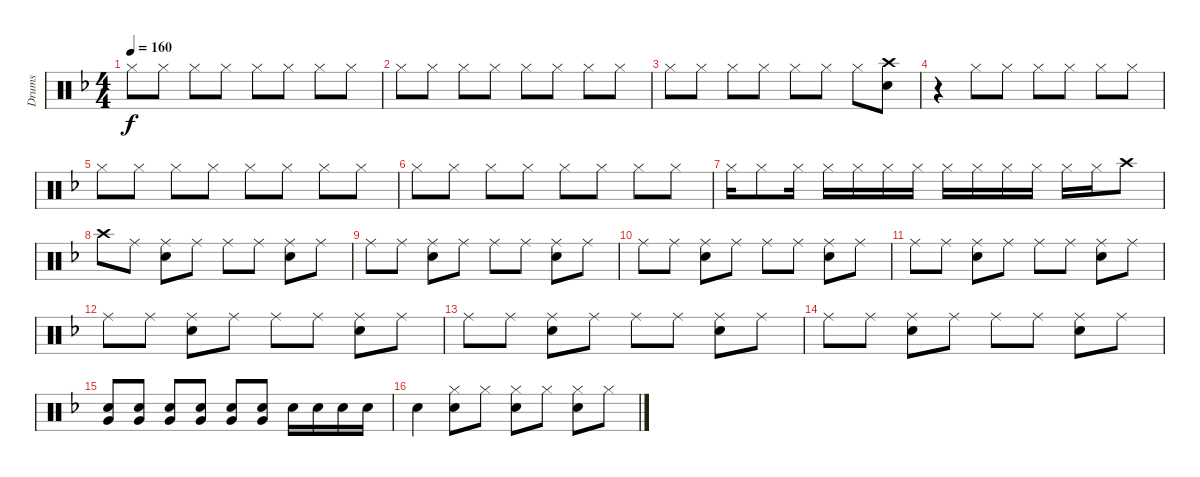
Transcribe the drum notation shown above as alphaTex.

\track ("Drums" "Drums") {instrument percussion}
\staff {score}
\articulation defaults
\ts (4 4)
\tempo 160
\clef neutral
\ks f "Hi-Hat (closed)".8{dy f} "Hi-Hat (closed)".8 "Hi-Hat (closed)".8 "Hi-Hat (closed)".8 "Hi-Hat (closed)".8 "Hi-Hat (closed)".8 "Hi-Hat (closed)".8 "Hi-Hat (closed)".8
|
"Hi-Hat (closed)".8 "Hi-Hat (closed)".8 "Hi-Hat (closed)".8 "Hi-Hat (closed)".8 "Hi-Hat (closed)".8 "Hi-Hat (closed)".8 "Hi-Hat (closed)".8 "Hi-Hat (closed)".8 |
"Hi-Hat (closed)".8 "Hi-Hat (closed)".8 "Hi-Hat (closed)".8 "Hi-Hat (closed)".8 "Hi-Hat (closed)".8 "Hi-Hat (closed)".8 "Hi-Hat (closed)".8 ("Crash high (hit)" "Snare (hit) 2").8 |
r.4 "Hi-Hat (closed)".8 "Hi-Hat (closed)".8 "Hi-Hat (closed)".8 "Hi-Hat (closed)".8 "Hi-Hat (closed)".8 "Hi-Hat (closed)".8 |
"Hi-Hat (closed)".8 "Hi-Hat (closed)".8 "Hi-Hat (closed)".8 "Hi-Hat (closed)".8 "Hi-Hat (closed)".8 "Hi-Hat (closed)".8 "Hi-Hat (closed)".8 "Hi-Hat (closed)".8 |
"Hi-Hat (closed)".8 "Hi-Hat (closed)".8 "Hi-Hat (closed)".8 "Hi-Hat (closed)".8 "Hi-Hat (closed)".8 "Hi-Hat (closed)".8 "Hi-Hat (closed)".8 "Hi-Hat (closed)".8 |
"Hi-Hat (closed)".16 "Hi-Hat (closed)".8 "Hi-Hat (closed)".16 "Hi-Hat (closed)".16 "Hi-Hat (closed)".16 "Hi-Hat (closed)".16 "Hi-Hat (closed)".16 "Hi-Hat (closed)".16 "Hi-Hat (closed)".16 "Hi-Hat (closed)".16 "Hi-Hat (closed)".16 "Hi-Hat (closed)".16 "Hi-Hat (closed)".16 "Crash high (hit)".8 |
"Crash high (hit)".8 "Ride (middle)".8 ("Ride (middle)" "Snare (hit) 2").8 "Ride (middle)".8 "Ride (middle)".8 "Ride (middle)".8 ("Ride (middle)" "Snare (hit) 2").8 "Ride (middle)".8 |
"Ride (middle)".8 "Ride (middle)".8 ("Ride (middle)" "Snare (hit) 2").8 "Ride (middle)".8 "Ride (middle)".8 "Ride (middle)".8 ("Ride (middle)" "Snare (hit) 2").8 "Ride (middle)".8 |
"Ride (middle)".8 "Ride (middle)".8 ("Ride (middle)" "Snare (hit) 2").8 "Ride (middle)".8 "Ride (middle)".8 "Ride (middle)".8 ("Ride (middle)" "Snare (hit) 2").8 "Ride (middle)".8 |
"Ride (middle)".8 "Ride (middle)".8 ("Ride (middle)" "Snare (hit) 2").8 "Ride (middle)".8 "Ride (middle)".8 "Ride (middle)".8 ("Ride (middle)" "Snare (hit) 2").8 "Ride (middle)".8 |
"Ride (middle)".8 "Ride (middle)".8 ("Ride (middle)" "Snare (hit) 2").8 "Ride (middle)".8 "Ride (middle)".8 "Ride (middle)".8 ("Ride (middle)" "Snare (hit) 2").8 "Ride (middle)".8 |
"Ride (middle)".8 "Ride (middle)".8 ("Ride (middle)" "Snare (hit) 2").8 "Ride (middle)".8 "Ride (middle)".8 "Ride (middle)".8 ("Ride (middle)" "Snare (hit) 2").8 "Ride (middle)".8 |
"Ride (middle)".8 "Ride (middle)".8 ("Ride (middle)" "Snare (hit) 2").8 "Ride (middle)".8 "Ride (middle)".8 "Ride (middle)".8 ("Ride (middle)" "Snare (hit) 2").8 "Ride (middle)".8 |
("Snare (hit) 2" "Very Low Tom (hit)").8 ("Snare (hit) 2" "Very Low Tom (hit)").8 ("Snare (hit) 2" "Very Low Tom (hit)").8 ("Snare (hit) 2" "Very Low Tom (hit)").8 ("Snare (hit) 2" "Very Low Tom (hit)").8 ("Snare (hit) 2" "Very Low Tom (hit)").8 "Snare (hit) 2".16 "Snare (hit) 2".16 "Snare (hit) 2".16 "Snare (hit) 2".16 |
"Snare (hit) 2".4 ("Hi-Hat (closed)" "Snare (hit) 2").8 "Hi-Hat (closed)".8 ("Hi-Hat (closed)" "Snare (hit) 2").8 "Hi-Hat (closed)".8 ("Hi-Hat (closed)" "Snare (hit) 2").8 "Hi-Hat (closed)".8
